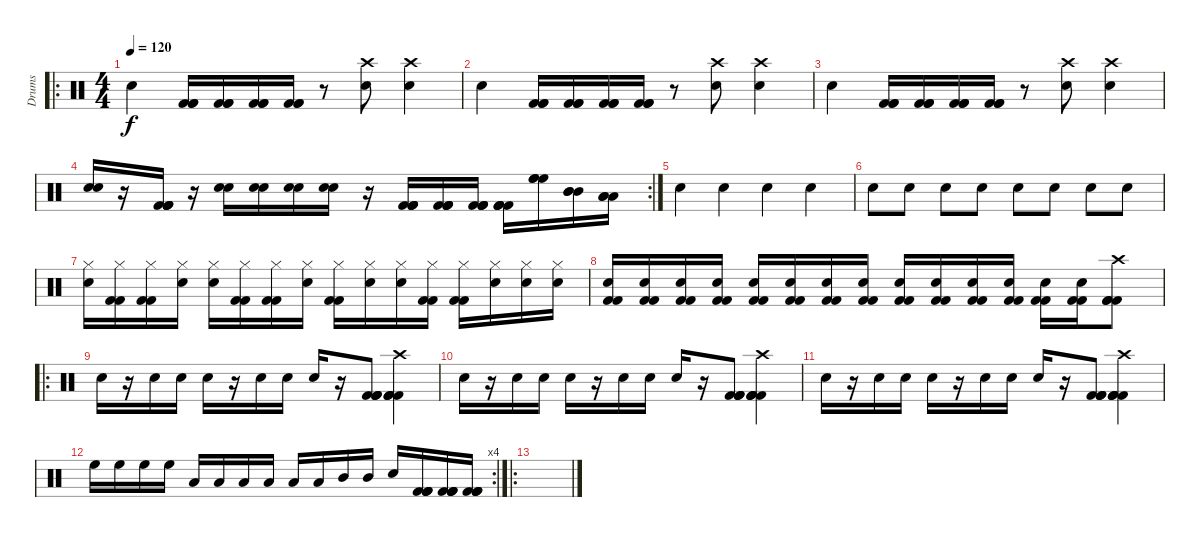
\track ("Drums" "Drums") {instrument percussion}
\staff {score}
\articulation defaults
\ro
\ts (4 4)
\tempo 120
\clef neutral
\ks c "Snare (hit) 2".4{dy f}
("Kick (hit) 2" "Kick (hit) 2" "Kick (hit) 2").16 ("Kick (hit) 2" "Kick (hit) 2" "Kick (hit) 2").16 ("Kick (hit) 2" "Kick (hit) 2" "Kick (hit) 2").16 ("Kick (hit) 2" "Kick (hit) 2" "Kick (hit) 2").16 r.8 ("Crash high (hit)" "Snare (hit) 2").8 ("Crash high (hit)" "Snare (hit) 2").4 |
"Snare (hit) 2".4 ("Kick (hit) 2" "Kick (hit) 2" "Kick (hit) 2").16 ("Kick (hit) 2" "Kick (hit) 2" "Kick (hit) 2").16 ("Kick (hit) 2" "Kick (hit) 2" "Kick (hit) 2").16 ("Kick (hit) 2" "Kick (hit) 2" "Kick (hit) 2").16 r.8 ("Crash high (hit)" "Snare (hit) 2").8 ("Crash high (hit)" "Snare (hit) 2").4 |
"Snare (hit) 2".4 ("Kick (hit) 2" "Kick (hit) 2" "Kick (hit) 2").16 ("Kick (hit) 2" "Kick (hit) 2" "Kick (hit) 2").16 ("Kick (hit) 2" "Kick (hit) 2" "Kick (hit) 2").16 ("Kick (hit) 2" "Kick (hit) 2" "Kick (hit) 2").16 r.8 ("Crash high (hit)" "Snare (hit) 2").8 ("Crash high (hit)" "Snare (hit) 2").4 |
\rc 2
("Snare (hit) 2" "Snare (hit) 2").16 r.16 ("Kick (hit) 2" "Kick (hit) 2" "Kick (hit) 2" "Kick (hit) 2").16 r.16 ("Snare (hit) 2" "Snare (hit) 2").16 ("Snare (hit) 2" "Snare (hit) 2").16 ("Snare (hit) 2" "Snare (hit) 2").16 ("Snare (hit) 2" "Snare (hit) 2").16 r.16 ("Kick (hit) 2" "Kick (hit) 2" "Kick (hit) 2" "Kick (hit) 2").16 ("Kick (hit) 2" "Kick (hit) 2" "Kick (hit) 2" "Kick (hit) 2").16 ("Kick (hit) 2" "Kick (hit) 2" "Kick (hit) 2" "Kick (hit) 2").16 ("Kick (hit) 2" "Kick (hit) 2" "Kick (hit) 2" "Kick (hit) 2").16 ("High Floor Tom (hit)" "High Floor Tom (hit)" "High Floor Tom (hit)").16 ("Mid Tom (hit)" "Mid Tom (hit)" "Mid Tom (hit)").16 ("Low Tom (hit)" "Low Tom (hit)" "Low Tom (hit)").16 |
"Snare (hit) 2".4 "Snare (hit) 2".4 "Snare (hit) 2".4 "Snare (hit) 2".4 |
"Snare (hit) 2".8 "Snare (hit) 2".8 "Snare (hit) 2".8 "Snare (hit) 2".8 "Snare (hit) 2".8 "Snare (hit) 2".8 "Snare (hit) 2".8 "Snare (hit) 2".8 |
("Hi-Hat (closed)" "Snare (hit) 2").16 ("Hi-Hat (closed)" "Kick (hit) 2" "Kick (hit) 2").16 ("Hi-Hat (closed)" "Kick (hit) 2" "Kick (hit) 2").16 ("Hi-Hat (closed)" "Snare (hit) 2").16 ("Hi-Hat (closed)" "Snare (hit) 2").16 ("Hi-Hat (closed)" "Kick (hit) 2" "Kick (hit) 2").16 ("Hi-Hat (closed)" "Kick (hit) 2" "Kick (hit) 2").16 ("Hi-Hat (closed)" "Snare (hit) 2").16 ("Hi-Hat (closed)" "Kick (hit) 2" "Kick (hit) 2").16 ("Hi-Hat (closed)" "Snare (hit) 2").16 ("Hi-Hat (closed)" "Snare (hit) 2").16 ("Hi-Hat (closed)" "Kick (hit) 2" "Kick (hit) 2").16 ("Hi-Hat (closed)" "Kick (hit) 2" "Kick (hit) 2").16 ("Hi-Hat (closed)" "Snare (hit) 2").16 ("Hi-Hat (closed)" "Snare (hit) 2").16 ("Hi-Hat (closed)" "Snare (hit) 2").16 |
("Snare (hit) 2" "Kick (hit) 2" "Kick (hit) 2").16 ("Snare (hit) 2" "Kick (hit) 2" "Kick (hit) 2").16 ("Snare (hit) 2" "Kick (hit) 2" "Kick (hit) 2").16 ("Snare (hit) 2" "Kick (hit) 2" "Kick (hit) 2").16 ("Snare (hit) 2" "Kick (hit) 2" "Kick (hit) 2").16 ("Snare (hit) 2" "Kick (hit) 2" "Kick (hit) 2").16 ("Snare (hit) 2" "Kick (hit) 2" "Kick (hit) 2").16 ("Snare (hit) 2" "Kick (hit) 2" "Kick (hit) 2").16 ("Snare (hit) 2" "Kick (hit) 2" "Kick (hit) 2").16 ("Snare (hit) 2" "Kick (hit) 2" "Kick (hit) 2").16 ("Snare (hit) 2" "Kick (hit) 2" "Kick (hit) 2").16 ("Snare (hit) 2" "Kick (hit) 2" "Kick (hit) 2").16 ("Snare (hit) 2" "Kick (hit) 2" "Kick (hit) 2").16 ("Snare (hit) 2" "Kick (hit) 2" "Kick (hit) 2").16 ("Crash high (hit)" "Kick (hit) 2" "Kick (hit) 2" "Kick (hit) 2").8 |
\ro "Snare (hit) 2".16
r.16 "Snare (hit) 2".16 "Snare (hit) 2".16 "Snare (hit) 2".16 r.16 "Snare (hit) 2".16 "Snare (hit) 2".16 "Snare (hit) 2".16 r.16 ("Kick (hit) 2" "Kick (hit) 2" "Kick (hit) 2" "Kick (hit) 2").8 ("Crash high (hit)" "Kick (hit) 2" "Kick (hit) 2" "Kick (hit) 2" "Kick (hit) 2").4 |
"Snare (hit) 2".16 r.16 "Snare (hit) 2".16 "Snare (hit) 2".16 "Snare (hit) 2".16 r.16 "Snare (hit) 2".16 "Snare (hit) 2".16 "Snare (hit) 2".16 r.16 ("Kick (hit) 2" "Kick (hit) 2" "Kick (hit) 2" "Kick (hit) 2").8 ("Crash high (hit)" "Kick (hit) 2" "Kick (hit) 2" "Kick (hit) 2" "Kick (hit) 2").4 |
"Snare (hit) 2".16 r.16 "Snare (hit) 2".16 "Snare (hit) 2".16 "Snare (hit) 2".16 r.16 "Snare (hit) 2".16 "Snare (hit) 2".16 "Snare (hit) 2".16 r.16 ("Kick (hit) 2" "Kick (hit) 2" "Kick (hit) 2" "Kick (hit) 2").8 ("Crash high (hit)" "Kick (hit) 2" "Kick (hit) 2" "Kick (hit) 2" "Kick (hit) 2").4 |
\rc 4 "High Floor Tom (hit)".16 "High Floor Tom (hit)".16 "High Floor Tom (hit)".16 "High Floor Tom (hit)".16 "Low Tom (hit)".16 "Low Tom (hit)".16 "Low Tom (hit)".16 "Low Tom (hit)".16 "Low Floor Tom (hit)".16 "Low Floor Tom (hit)".16 "Mid Tom (hit)".16 "Mid Tom (hit)".16 "Snare (hit) 2".16
("Kick (hit) 2" "Kick (hit) 2" "Kick (hit) 2" "Kick (hit) 2").16 ("Kick (hit) 2" "Kick (hit) 2" "Kick (hit) 2" "Kick (hit) 2").16 ("Kick (hit) 2" "Kick (hit) 2" "Kick (hit) 2" "Kick (hit) 2").16 |
\ro
